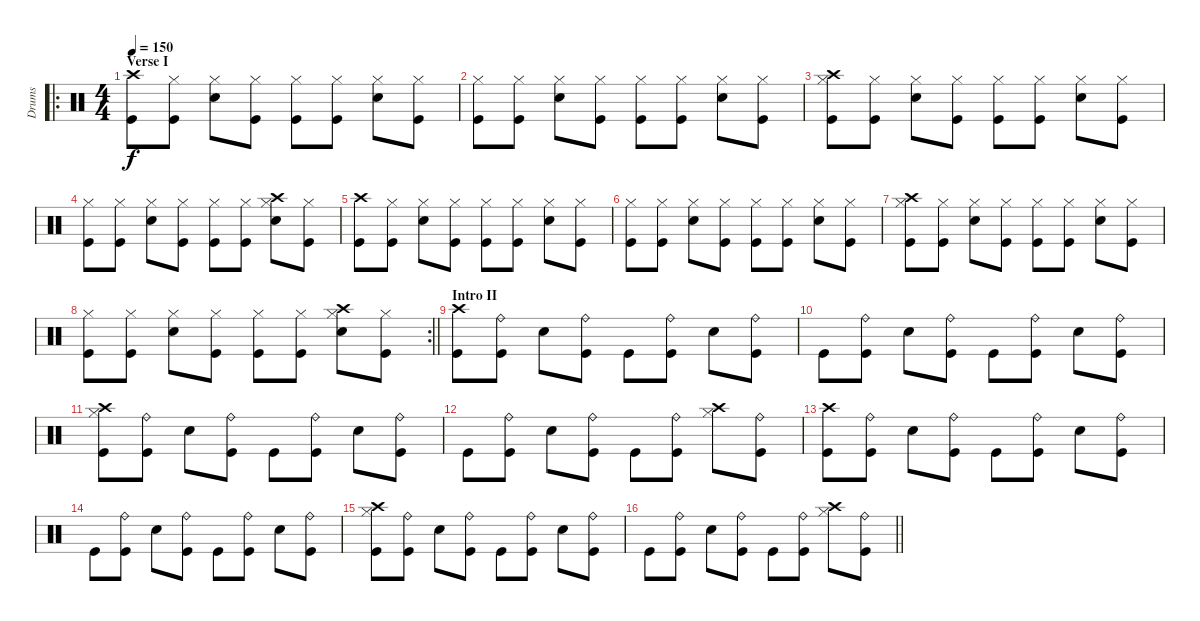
\track ("Drums" "Drums") {instrument percussion}
\staff {score}
\articulation defaults
\ro
\ts (4 4)
\section ("" "Verse I")
\tempo 150
\clef neutral
\ks c
("Crash high (hit)" "Kick (hit)").8{dy f} ("Kick (hit)" "Hi-Hat (closed)").8 ("Electric Snare (hit)" "Hi-Hat (closed)").8 ("Kick (hit)" "Hi-Hat (closed)").8 ("Kick (hit)" "Hi-Hat (closed)").8 ("Kick (hit)" "Hi-Hat (closed)").8 ("Electric Snare (hit)" "Hi-Hat (closed)").8 ("Kick (hit)" "Hi-Hat (closed)").8 |
("Kick (hit)" "Hi-Hat (closed)").8 ("Kick (hit)" "Hi-Hat (closed)").8 ("Electric Snare (hit)" "Hi-Hat (closed)").8 ("Kick (hit)" "Hi-Hat (closed)").8 ("Kick (hit)" "Hi-Hat (closed)").8 ("Kick (hit)" "Hi-Hat (closed)").8 ("Electric Snare (hit)" "Hi-Hat (closed)").8 ("Kick (hit)" "Hi-Hat (closed)").8 |
("Crash high (hit)" "Kick (hit)" "Hi-Hat (closed)").8 ("Kick (hit)" "Hi-Hat (closed)").8 ("Electric Snare (hit)" "Hi-Hat (closed)").8 ("Kick (hit)" "Hi-Hat (closed)").8 ("Kick (hit)" "Hi-Hat (closed)").8 ("Kick (hit)" "Hi-Hat (closed)").8 ("Electric Snare (hit)" "Hi-Hat (closed)").8 ("Kick (hit)" "Hi-Hat (closed)").8 |
("Kick (hit)" "Hi-Hat (closed)").8 ("Kick (hit)" "Hi-Hat (closed)").8 ("Electric Snare (hit)" "Hi-Hat (closed)").8 ("Kick (hit)" "Hi-Hat (closed)").8 ("Kick (hit)" "Hi-Hat (closed)").8 ("Kick (hit)" "Hi-Hat (closed)").8 ("Crash high (hit)" "Electric Snare (hit)" "Hi-Hat (closed)").8 ("Kick (hit)" "Hi-Hat (closed)").8 |
("Crash high (hit)" "Kick (hit)").8 ("Kick (hit)" "Hi-Hat (closed)").8 ("Electric Snare (hit)" "Hi-Hat (closed)").8 ("Kick (hit)" "Hi-Hat (closed)").8 ("Kick (hit)" "Hi-Hat (closed)").8 ("Kick (hit)" "Hi-Hat (closed)").8 ("Electric Snare (hit)" "Hi-Hat (closed)").8 ("Kick (hit)" "Hi-Hat (closed)").8 |
("Kick (hit)" "Hi-Hat (closed)").8 ("Kick (hit)" "Hi-Hat (closed)").8 ("Electric Snare (hit)" "Hi-Hat (closed)").8 ("Kick (hit)" "Hi-Hat (closed)").8 ("Kick (hit)" "Hi-Hat (closed)").8 ("Kick (hit)" "Hi-Hat (closed)").8 ("Electric Snare (hit)" "Hi-Hat (closed)").8 ("Kick (hit)" "Hi-Hat (closed)").8 |
("Crash high (hit)" "Kick (hit)" "Hi-Hat (closed)").8 ("Kick (hit)" "Hi-Hat (closed)").8 ("Electric Snare (hit)" "Hi-Hat (closed)").8 ("Kick (hit)" "Hi-Hat (closed)").8 ("Kick (hit)" "Hi-Hat (closed)").8 ("Kick (hit)" "Hi-Hat (closed)").8 ("Electric Snare (hit)" "Hi-Hat (closed)").8 ("Kick (hit)" "Hi-Hat (closed)").8 |
\rc 2
\barLineRight lightlight
("Kick (hit)" "Hi-Hat (closed)").8 ("Kick (hit)" "Hi-Hat (closed)").8 ("Electric Snare (hit)" "Hi-Hat (closed)").8 ("Kick (hit)" "Hi-Hat (closed)").8 ("Kick (hit)" "Hi-Hat (closed)").8 ("Kick (hit)" "Hi-Hat (closed)").8 ("Crash high (hit)" "Electric Snare (hit)" "Hi-Hat (closed)").8 ("Kick (hit)" "Hi-Hat (closed)").8 |
\section ("" "Intro II")
("Crash high (hit)" "Kick (hit)").8 ("Kick (hit)" "Ride (bell)").8 "Electric Snare (hit)".8 ("Kick (hit)" "Ride (bell)").8 "Kick (hit)".8 ("Kick (hit)" "Ride (bell)").8 "Electric Snare (hit)".8 ("Kick (hit)" "Ride (bell)").8 |
"Kick (hit)".8 ("Kick (hit)" "Ride (bell)").8 "Electric Snare (hit)".8 ("Kick (hit)" "Ride (bell)").8 "Kick (hit)".8 ("Kick (hit)" "Ride (bell)").8 "Electric Snare (hit)".8 ("Kick (hit)" "Ride (bell)").8 |
("Crash high (hit)" "Kick (hit)" "Hi-Hat (closed)").8 ("Kick (hit)" "Ride (bell)").8 "Electric Snare (hit)".8 ("Kick (hit)" "Ride (bell)").8 "Kick (hit)".8 ("Kick (hit)" "Ride (bell)").8 "Electric Snare (hit)".8 ("Kick (hit)" "Ride (bell)").8 |
"Kick (hit)".8 ("Kick (hit)" "Ride (bell)").8 "Electric Snare (hit)".8 ("Kick (hit)" "Ride (bell)").8 "Kick (hit)".8 ("Kick (hit)" "Ride (bell)").8 ("Crash high (hit)" "Hi-Hat (closed)").8 ("Kick (hit)" "Ride (bell)").8 |
("Crash high (hit)" "Kick (hit)").8 ("Kick (hit)" "Ride (bell)").8 "Electric Snare (hit)".8 ("Kick (hit)" "Ride (bell)").8 "Kick (hit)".8 ("Kick (hit)" "Ride (bell)").8 "Electric Snare (hit)".8 ("Kick (hit)" "Ride (bell)").8 |
"Kick (hit)".8 ("Kick (hit)" "Ride (bell)").8 "Electric Snare (hit)".8 ("Kick (hit)" "Ride (bell)").8 "Kick (hit)".8 ("Kick (hit)" "Ride (bell)").8 "Electric Snare (hit)".8 ("Kick (hit)" "Ride (bell)").8 |
("Crash high (hit)" "Kick (hit)" "Hi-Hat (closed)").8 ("Kick (hit)" "Ride (bell)").8 "Electric Snare (hit)".8 ("Kick (hit)" "Ride (bell)").8 "Kick (hit)".8 ("Kick (hit)" "Ride (bell)").8 "Electric Snare (hit)".8 ("Kick (hit)" "Ride (bell)").8 |
\barLineRight lightlight "Kick (hit)".8
("Kick (hit)" "Ride (bell)").8 "Electric Snare (hit)".8 ("Kick (hit)" "Ride (bell)").8 "Kick (hit)".8 ("Kick (hit)" "Ride (bell)").8 ("Crash high (hit)" "Hi-Hat (closed)").8 ("Kick (hit)" "Ride (bell)").8
